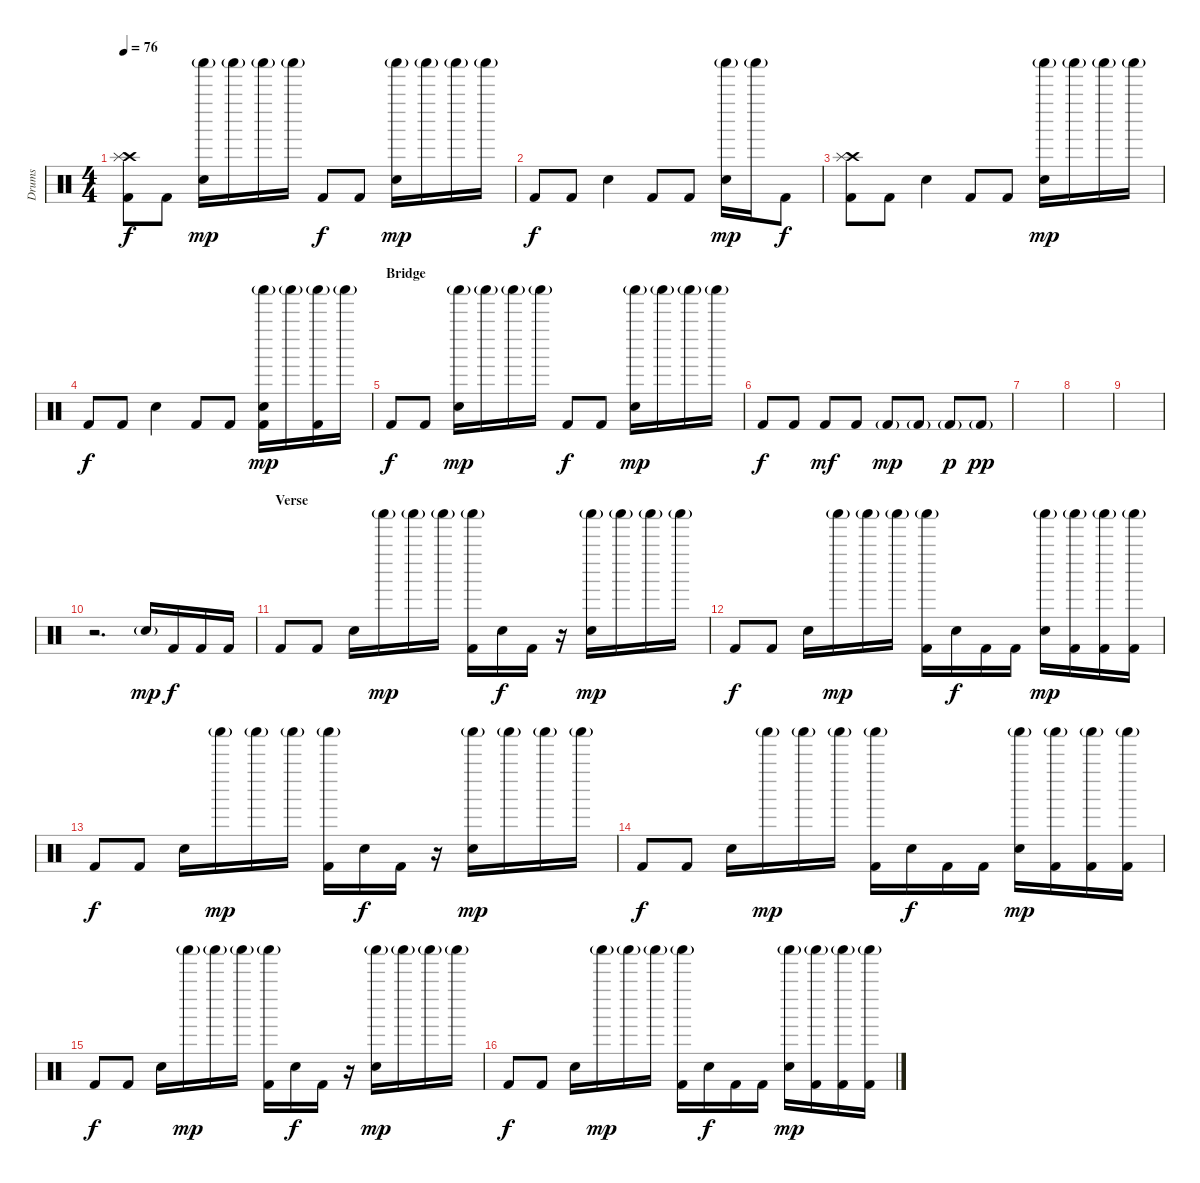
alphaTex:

\track ("Drums" "Drums") {instrument percussion}
\staff {score}
\articulation defaults
\ts (4 4)
\tempo 76
\clef neutral
\ks c
("Crash high (hit)" "Splash (hit)" "Kick (hit) 2").8{dy f} "Kick (hit) 2".8 ("Shaker (hit)"{g} "Electric Snare (hit)").16{dy mp} "Shaker (hit)"{g}.16 "Shaker (hit)"{g}.16 "Shaker (hit)"{g}.16 "Kick (hit) 2".8{dy f} "Kick (hit) 2".8 ("Shaker (hit)"{g} "Electric Snare (hit)").16{dy mp} "Shaker (hit)"{g}.16 "Shaker (hit)"{g}.16 "Shaker (hit)"{g}.16 |
"Kick (hit) 2".8{dy f} "Kick (hit) 2".8 "Electric Snare (hit)".4 "Kick (hit) 2".8 "Kick (hit) 2".8 ("Shaker (hit)"{g} "Electric Snare (hit)").16{dy mp} "Shaker (hit)"{g}.16 "Kick (hit) 2".8{dy f} |
("Crash high (hit)" "Splash (hit)" "Kick (hit) 2").8 "Kick (hit) 2".8 "Electric Snare (hit)".4 "Kick (hit) 2".8 "Kick (hit) 2".8 ("Shaker (hit)"{g} "Electric Snare (hit)").16{dy mp} "Shaker (hit)"{g}.16 "Shaker (hit)"{g}.16 "Shaker (hit)"{g}.16 |
"Kick (hit) 2".8{dy f} "Kick (hit) 2".8 "Electric Snare (hit)".4 "Kick (hit) 2".8 "Kick (hit) 2".8 ("Shaker (hit)"{g} "Electric Snare (hit)" "Kick (hit) 2").16{dy mp} "Shaker (hit)"{g}.16 ("Shaker (hit)"{g} "Kick (hit) 2").16 "Shaker (hit)"{g}.16 |
\section ("" "Bridge")
"Kick (hit) 2".8{dy f} "Kick (hit) 2".8 ("Shaker (hit)"{g} "Electric Snare (hit)").16{dy mp} "Shaker (hit)"{g}.16 "Shaker (hit)"{g}.16 "Shaker (hit)"{g}.16 "Kick (hit) 2".8{dy f} "Kick (hit) 2".8 ("Shaker (hit)"{g} "Electric Snare (hit)").16{dy mp} "Shaker (hit)"{g}.16 "Shaker (hit)"{g}.16 "Shaker (hit)"{g}.16 |
"Kick (hit) 2".8{dy f} "Kick (hit) 2".8 "Kick (hit) 2".8{dy mf} "Kick (hit) 2".8 "Kick (hit) 2"{g}.8{dy mp} "Kick (hit) 2"{g}.8 "Kick (hit) 2"{g}.8{dy p} "Kick (hit) 2"{g}.8{dy pp} |
|
|
|
r.2{d} "Electric Snare (hit)"{g}.16{dy mp} "Kick (hit) 2".16{dy f} "Kick (hit) 2".16 "Kick (hit) 2".16 |
\section ("" "Verse")
"Kick (hit) 2".8 "Kick (hit) 2".8 "Electric Snare (hit)".16 "Shaker (hit)"{g}.16{dy mp} "Shaker (hit)"{g}.16 "Shaker (hit)"{g}.16 ("Shaker (hit)"{g} "Kick (hit) 2").16 "Electric Snare (hit)".16{dy f} "Kick (hit) 2".16 r.16 ("Shaker (hit)"{g} "Electric Snare (hit)").16{dy mp} "Shaker (hit)"{g}.16 "Shaker (hit)"{g}.16 "Shaker (hit)"{g}.16 |
"Kick (hit) 2".8{dy f} "Kick (hit) 2".8 "Electric Snare (hit)".16 "Shaker (hit)"{g}.16{dy mp} "Shaker (hit)"{g}.16 "Shaker (hit)"{g}.16 ("Shaker (hit)"{g} "Kick (hit) 2").16 "Electric Snare (hit)".16{dy f} "Kick (hit) 2".16 "Kick (hit) 2".16 ("Shaker (hit)"{g} "Electric Snare (hit)").16{dy mp} ("Shaker (hit)"{g} "Kick (hit) 2").16 ("Shaker (hit)"{g} "Kick (hit) 2").16 ("Shaker (hit)"{g} "Kick (hit) 2").16 |
"Kick (hit) 2".8{dy f} "Kick (hit) 2".8 "Electric Snare (hit)".16 "Shaker (hit)"{g}.16{dy mp} "Shaker (hit)"{g}.16 "Shaker (hit)"{g}.16 ("Shaker (hit)"{g} "Kick (hit) 2").16 "Electric Snare (hit)".16{dy f} "Kick (hit) 2".16 r.16 ("Shaker (hit)"{g} "Electric Snare (hit)").16{dy mp} "Shaker (hit)"{g}.16 "Shaker (hit)"{g}.16 "Shaker (hit)"{g}.16 |
"Kick (hit) 2".8{dy f} "Kick (hit) 2".8 "Electric Snare (hit)".16 "Shaker (hit)"{g}.16{dy mp} "Shaker (hit)"{g}.16 "Shaker (hit)"{g}.16 ("Shaker (hit)"{g} "Kick (hit) 2").16 "Electric Snare (hit)".16{dy f} "Kick (hit) 2".16 "Kick (hit) 2".16 ("Shaker (hit)"{g} "Electric Snare (hit)").16{dy mp} ("Shaker (hit)"{g} "Kick (hit) 2").16 ("Shaker (hit)"{g} "Kick (hit) 2").16 ("Shaker (hit)"{g} "Kick (hit) 2").16 |
"Kick (hit) 2".8{dy f} "Kick (hit) 2".8 "Electric Snare (hit)".16 "Shaker (hit)"{g}.16{dy mp} "Shaker (hit)"{g}.16 "Shaker (hit)"{g}.16 ("Shaker (hit)"{g} "Kick (hit) 2").16 "Electric Snare (hit)".16{dy f} "Kick (hit) 2".16 r.16 ("Shaker (hit)"{g} "Electric Snare (hit)").16{dy mp} "Shaker (hit)"{g}.16 "Shaker (hit)"{g}.16 "Shaker (hit)"{g}.16 |
"Kick (hit) 2".8{dy f} "Kick (hit) 2".8 "Electric Snare (hit)".16 "Shaker (hit)"{g}.16{dy mp} "Shaker (hit)"{g}.16 "Shaker (hit)"{g}.16 ("Shaker (hit)"{g} "Kick (hit) 2").16 "Electric Snare (hit)".16{dy f} "Kick (hit) 2".16 "Kick (hit) 2".16 ("Shaker (hit)"{g} "Electric Snare (hit)").16{dy mp} ("Shaker (hit)"{g} "Kick (hit) 2").16 ("Shaker (hit)"{g} "Kick (hit) 2").16 ("Shaker (hit)"{g} "Kick (hit) 2").16
